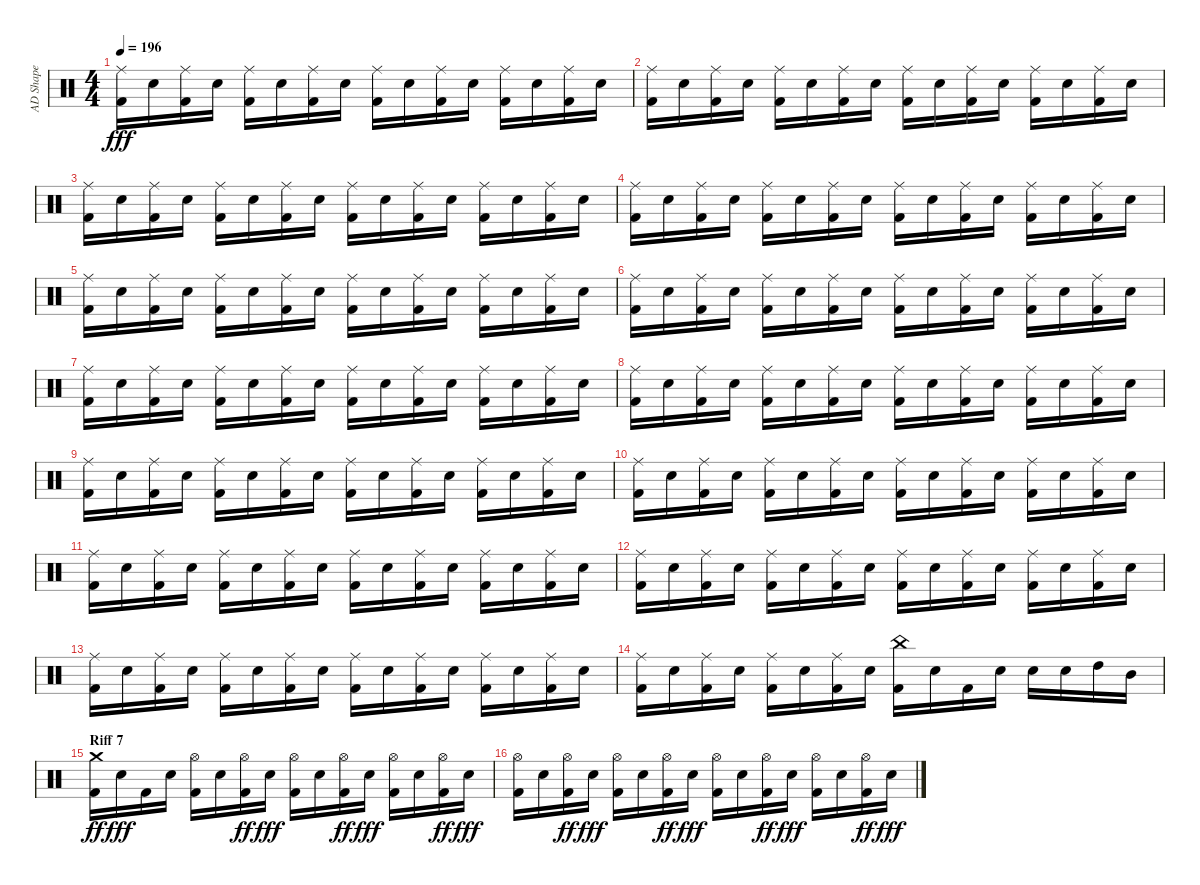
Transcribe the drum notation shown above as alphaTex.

\track ("AD Shape" "AD Shape") {instrument percussion}
\staff {score}
\articulation defaults
\ts (4 4)
\tempo 196
\clef neutral
\ks c
("Kick (hit) 2" "Ride (middle)").16{dy fff} "Snare (hit) 2".16 ("Kick (hit) 2" "Ride (middle)").16 "Snare (hit) 2".16 ("Kick (hit) 2" "Ride (middle)").16 "Snare (hit) 2".16 ("Kick (hit) 2" "Ride (middle)").16 "Snare (hit) 2".16 ("Kick (hit) 2" "Ride (middle)").16 "Snare (hit) 2".16 ("Kick (hit) 2" "Ride (middle)").16 "Snare (hit) 2".16 ("Kick (hit) 2" "Ride (middle)").16 "Snare (hit) 2".16 ("Kick (hit) 2" "Ride (middle)").16 "Snare (hit) 2".16 |
("Kick (hit) 2" "Ride (middle)").16 "Snare (hit) 2".16 ("Kick (hit) 2" "Ride (middle)").16 "Snare (hit) 2".16 ("Kick (hit) 2" "Ride (middle)").16 "Snare (hit) 2".16 ("Kick (hit) 2" "Ride (middle)").16 "Snare (hit) 2".16 ("Kick (hit) 2" "Ride (middle)").16 "Snare (hit) 2".16 ("Kick (hit) 2" "Ride (middle)").16 "Snare (hit) 2".16 ("Kick (hit) 2" "Ride (middle)").16 "Snare (hit) 2".16 ("Kick (hit) 2" "Ride (middle)").16 "Snare (hit) 2".16 |
("Kick (hit) 2" "Ride (middle)").16 "Snare (hit) 2".16 ("Kick (hit) 2" "Ride (middle)").16 "Snare (hit) 2".16 ("Kick (hit) 2" "Ride (middle)").16 "Snare (hit) 2".16 ("Kick (hit) 2" "Ride (middle)").16 "Snare (hit) 2".16 ("Kick (hit) 2" "Ride (middle)").16 "Snare (hit) 2".16 ("Kick (hit) 2" "Ride (middle)").16 "Snare (hit) 2".16 ("Kick (hit) 2" "Ride (middle)").16 "Snare (hit) 2".16 ("Kick (hit) 2" "Ride (middle)").16 "Snare (hit) 2".16 |
("Kick (hit) 2" "Ride (middle)").16 "Snare (hit) 2".16 ("Kick (hit) 2" "Ride (middle)").16 "Snare (hit) 2".16 ("Kick (hit) 2" "Ride (middle)").16 "Snare (hit) 2".16 ("Kick (hit) 2" "Ride (middle)").16 "Snare (hit) 2".16 ("Kick (hit) 2" "Ride (middle)").16 "Snare (hit) 2".16 ("Kick (hit) 2" "Ride (middle)").16 "Snare (hit) 2".16 ("Kick (hit) 2" "Ride (middle)").16 "Snare (hit) 2".16 ("Kick (hit) 2" "Ride (middle)").16 "Snare (hit) 2".16 |
("Kick (hit) 2" "Ride (middle)").16 "Snare (hit) 2".16 ("Kick (hit) 2" "Ride (middle)").16 "Snare (hit) 2".16 ("Kick (hit) 2" "Ride (middle)").16 "Snare (hit) 2".16 ("Kick (hit) 2" "Ride (middle)").16 "Snare (hit) 2".16 ("Kick (hit) 2" "Ride (middle)").16 "Snare (hit) 2".16 ("Kick (hit) 2" "Ride (middle)").16 "Snare (hit) 2".16 ("Kick (hit) 2" "Ride (middle)").16 "Snare (hit) 2".16 ("Kick (hit) 2" "Ride (middle)").16 "Snare (hit) 2".16 |
("Kick (hit) 2" "Ride (middle)").16 "Snare (hit) 2".16 ("Kick (hit) 2" "Ride (middle)").16 "Snare (hit) 2".16 ("Kick (hit) 2" "Ride (middle)").16 "Snare (hit) 2".16 ("Kick (hit) 2" "Ride (middle)").16 "Snare (hit) 2".16 ("Kick (hit) 2" "Ride (middle)").16 "Snare (hit) 2".16 ("Kick (hit) 2" "Ride (middle)").16 "Snare (hit) 2".16 ("Kick (hit) 2" "Ride (middle)").16 "Snare (hit) 2".16 ("Kick (hit) 2" "Ride (middle)").16 "Snare (hit) 2".16 |
("Kick (hit) 2" "Ride (middle)").16 "Snare (hit) 2".16 ("Kick (hit) 2" "Ride (middle)").16 "Snare (hit) 2".16 ("Kick (hit) 2" "Ride (middle)").16 "Snare (hit) 2".16 ("Kick (hit) 2" "Ride (middle)").16 "Snare (hit) 2".16 ("Kick (hit) 2" "Ride (middle)").16 "Snare (hit) 2".16 ("Kick (hit) 2" "Ride (middle)").16 "Snare (hit) 2".16 ("Kick (hit) 2" "Ride (middle)").16 "Snare (hit) 2".16 ("Kick (hit) 2" "Ride (middle)").16 "Snare (hit) 2".16 |
("Kick (hit) 2" "Ride (middle)").16 "Snare (hit) 2".16 ("Kick (hit) 2" "Ride (middle)").16 "Snare (hit) 2".16 ("Kick (hit) 2" "Ride (middle)").16 "Snare (hit) 2".16 ("Kick (hit) 2" "Ride (middle)").16 "Snare (hit) 2".16 ("Kick (hit) 2" "Ride (middle)").16 "Snare (hit) 2".16 ("Kick (hit) 2" "Ride (middle)").16 "Snare (hit) 2".16 ("Kick (hit) 2" "Ride (middle)").16 "Snare (hit) 2".16 ("Kick (hit) 2" "Ride (middle)").16 "Snare (hit) 2".16 |
("Kick (hit) 2" "Ride (middle)").16 "Snare (hit) 2".16 ("Kick (hit) 2" "Ride (middle)").16 "Snare (hit) 2".16 ("Kick (hit) 2" "Ride (middle)").16 "Snare (hit) 2".16 ("Kick (hit) 2" "Ride (middle)").16 "Snare (hit) 2".16 ("Kick (hit) 2" "Ride (middle)").16 "Snare (hit) 2".16 ("Kick (hit) 2" "Ride (middle)").16 "Snare (hit) 2".16 ("Kick (hit) 2" "Ride (middle)").16 "Snare (hit) 2".16 ("Kick (hit) 2" "Ride (middle)").16 "Snare (hit) 2".16 |
("Kick (hit) 2" "Ride (middle)").16 "Snare (hit) 2".16 ("Kick (hit) 2" "Ride (middle)").16 "Snare (hit) 2".16 ("Kick (hit) 2" "Ride (middle)").16 "Snare (hit) 2".16 ("Kick (hit) 2" "Ride (middle)").16 "Snare (hit) 2".16 ("Kick (hit) 2" "Ride (middle)").16 "Snare (hit) 2".16 ("Kick (hit) 2" "Ride (middle)").16 "Snare (hit) 2".16 ("Kick (hit) 2" "Ride (middle)").16 "Snare (hit) 2".16 ("Kick (hit) 2" "Ride (middle)").16 "Snare (hit) 2".16 |
("Kick (hit) 2" "Ride (middle)").16 "Snare (hit) 2".16 ("Kick (hit) 2" "Ride (middle)").16 "Snare (hit) 2".16 ("Kick (hit) 2" "Ride (middle)").16 "Snare (hit) 2".16 ("Kick (hit) 2" "Ride (middle)").16 "Snare (hit) 2".16 ("Kick (hit) 2" "Ride (middle)").16 "Snare (hit) 2".16 ("Kick (hit) 2" "Ride (middle)").16 "Snare (hit) 2".16 ("Kick (hit) 2" "Ride (middle)").16 "Snare (hit) 2".16 ("Kick (hit) 2" "Ride (middle)").16 "Snare (hit) 2".16 |
("Kick (hit) 2" "Ride (middle)").16 "Snare (hit) 2".16 ("Kick (hit) 2" "Ride (middle)").16 "Snare (hit) 2".16 ("Kick (hit) 2" "Ride (middle)").16 "Snare (hit) 2".16 ("Kick (hit) 2" "Ride (middle)").16 "Snare (hit) 2".16 ("Kick (hit) 2" "Ride (middle)").16 "Snare (hit) 2".16 ("Kick (hit) 2" "Ride (middle)").16 "Snare (hit) 2".16 ("Kick (hit) 2" "Ride (middle)").16 "Snare (hit) 2".16 ("Kick (hit) 2" "Ride (middle)").16 "Snare (hit) 2".16 |
("Kick (hit) 2" "Ride (middle)").16 "Snare (hit) 2".16 ("Kick (hit) 2" "Ride (middle)").16 "Snare (hit) 2".16 ("Kick (hit) 2" "Ride (middle)").16 "Snare (hit) 2".16 ("Kick (hit) 2" "Ride (middle)").16 "Snare (hit) 2".16 ("Kick (hit) 2" "Ride (middle)").16 "Snare (hit) 2".16 ("Kick (hit) 2" "Ride (middle)").16 "Snare (hit) 2".16 ("Kick (hit) 2" "Ride (middle)").16 "Snare (hit) 2".16 ("Kick (hit) 2" "Ride (middle)").16 "Snare (hit) 2".16 |
("Kick (hit) 2" "Ride (middle)").16 "Snare (hit) 2".16 ("Kick (hit) 2" "Ride (middle)").16 "Snare (hit) 2".16 ("Kick (hit) 2" "Ride (middle)").16 "Snare (hit) 2".16 ("Kick (hit) 2" "Ride (middle)").16 "Snare (hit) 2".16 ("Kick (hit) 2" "China (hit)").16 "Snare (hit) 2".16 "Kick (hit) 2".16 "Snare (hit) 2".16 "Snare (hit) 2".16 "Snare (hit) 2".16 "High Tom (hit)".16 "Mid Tom (hit)".16 |
\section ("" "Riff 7")
("Kick (hit) 2" "Crash medium (hit)").16{dy ff} "Snare (hit) 2".16{dy fff} "Kick (hit) 2".16 "Snare (hit) 2".16 ("Kick (hit) 2" "Hi-Hat (open)").16 "Snare (hit) 2".16 ("Kick (hit) 2" "Hi-Hat (open)").16{dy ff} "Snare (hit) 2".16{dy fff} ("Kick (hit) 2" "Hi-Hat (open)").16 "Snare (hit) 2".16 ("Kick (hit) 2" "Hi-Hat (open)").16{dy ff} "Snare (hit) 2".16{dy fff} ("Kick (hit) 2" "Hi-Hat (open)").16 "Snare (hit) 2".16 ("Kick (hit) 2" "Hi-Hat (open)").16{dy ff} "Snare (hit) 2".16{dy fff} |
("Kick (hit) 2" "Hi-Hat (open)").16 "Snare (hit) 2".16 ("Kick (hit) 2" "Hi-Hat (open)").16{dy ff} "Snare (hit) 2".16{dy fff} ("Kick (hit) 2" "Hi-Hat (open)").16 "Snare (hit) 2".16 ("Kick (hit) 2" "Hi-Hat (open)").16{dy ff} "Snare (hit) 2".16{dy fff} ("Kick (hit) 2" "Hi-Hat (open)").16 "Snare (hit) 2".16 ("Kick (hit) 2" "Hi-Hat (open)").16{dy ff} "Snare (hit) 2".16{dy fff} ("Kick (hit) 2" "Hi-Hat (open)").16 "Snare (hit) 2".16 ("Kick (hit) 2" "Hi-Hat (open)").16{dy ff} "Snare (hit) 2".16{dy fff}
